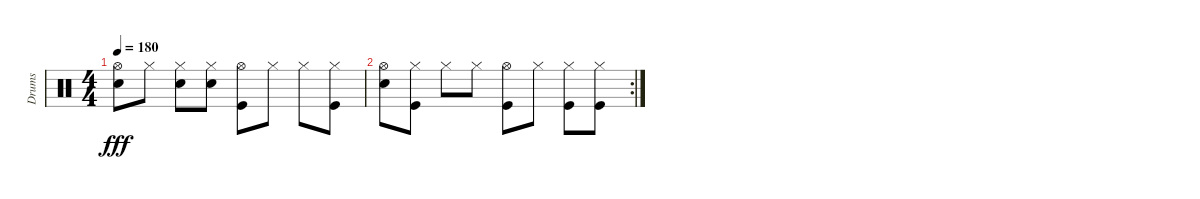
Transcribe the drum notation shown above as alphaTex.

\track ("Drums" "Drums") {instrument percussion}
\staff {score}
\articulation defaults
\ts (4 4)
\tempo 180
\clef neutral
\ks c
("Hi-Hat (open)" "Snare (hit) 2").8{dy fff} "Hi-Hat (closed)".8 ("Hi-Hat (closed)" "Snare (hit) 2").8 ("Hi-Hat (closed)" "Snare (hit) 2").8 ("Hi-Hat (open)" "Kick (hit)").8 "Hi-Hat (closed)".8 "Hi-Hat (closed)".8 ("Hi-Hat (closed)" "Kick (hit)").8 |
\rc 2
("Hi-Hat (open)" "Snare (hit) 2").8 ("Hi-Hat (closed)" "Kick (hit)").8 "Hi-Hat (closed)".8 "Hi-Hat (closed)".8 ("Hi-Hat (open)" "Kick (hit)").8 "Hi-Hat (closed)".8 ("Hi-Hat (closed)" "Kick (hit)").8 ("Hi-Hat (closed)" "Kick (hit)").8
